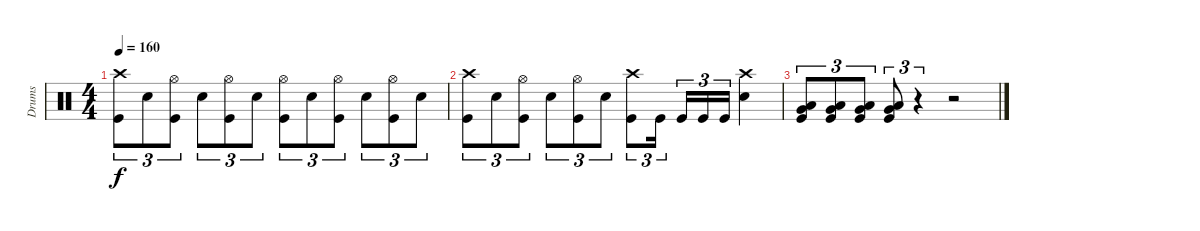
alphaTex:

\track ("Drums" "Drums") {instrument percussion}
\staff {score}
\articulation defaults
\ts (4 4)
\tempo 160
\clef neutral
\ks c
("Crash high (hit)" "Kick (hit)").8{tu (3 2) dy f} "Electric Snare (hit)".8{tu (3 2)} ("Hi-Hat (open)" "Kick (hit)").8{tu (3 2)} "Electric Snare (hit)".8{tu (3 2)} ("Hi-Hat (open)" "Kick (hit)").8{tu (3 2)} "Electric Snare (hit)".8{tu (3 2)} ("Hi-Hat (open)" "Kick (hit)").8{tu (3 2)} "Electric Snare (hit)".8{tu (3 2)} ("Hi-Hat (open)" "Kick (hit)").8{tu (3 2)} "Electric Snare (hit)".8{tu (3 2)} ("Hi-Hat (open)" "Kick (hit)").8{tu (3 2)} "Electric Snare (hit)".8{tu (3 2)} |
("Crash high (hit)" "Kick (hit)").8{tu (3 2)} "Electric Snare (hit)".8{tu (3 2)} ("Hi-Hat (open)" "Kick (hit)").8{tu (3 2)} "Electric Snare (hit)".8{tu (3 2)} ("Hi-Hat (open)" "Kick (hit)").8{tu (3 2)} "Electric Snare (hit)".8{tu (3 2)} ("Crash high (hit)" "Kick (hit)").8{tu (3 2)} "Kick (hit)".16{tu (3 2)} "Kick (hit)".16{tu (3 2)} "Kick (hit)".16{tu (3 2)} "Kick (hit)".16{tu (3 2)} ("Crash high (hit)" "Electric Snare (hit)").4 |
("Low Tom (hit)" "Very Low Tom (hit)" "Kick (hit)").8{tu (3 2)} ("Low Tom (hit)" "Very Low Tom (hit)" "Kick (hit)").8{tu (3 2)} ("Low Tom (hit)" "Very Low Tom (hit)" "Kick (hit)").8{tu (3 2)} ("Low Tom (hit)" "Very Low Tom (hit)" "Kick (hit)").8{tu (3 2)} r.4{tu (3 2)} r.2
